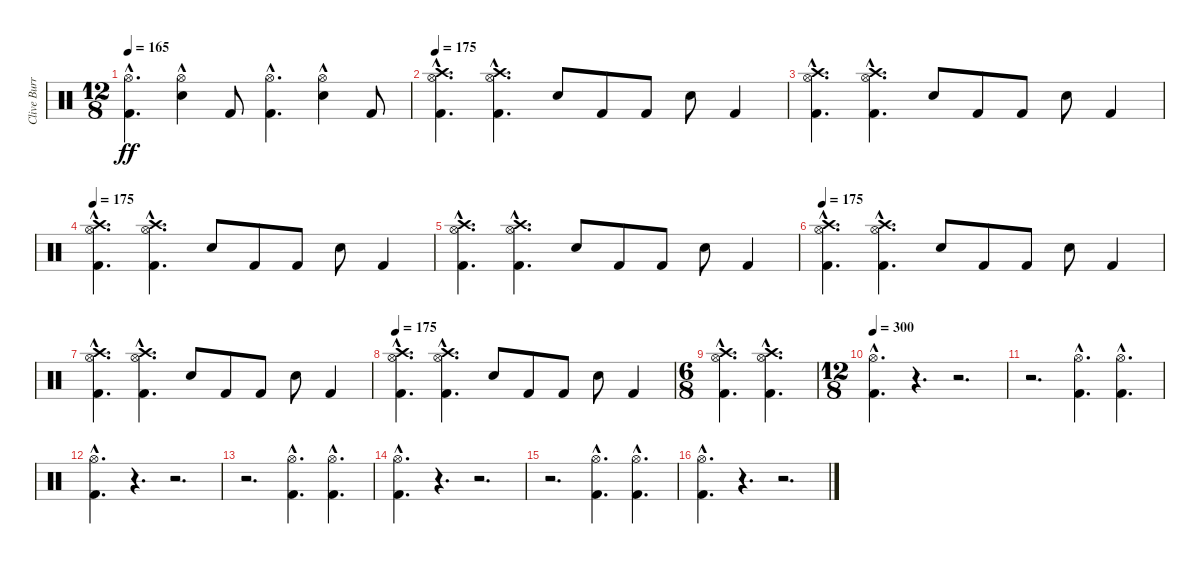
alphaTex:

\track ("Clive Burr" "Clive Burr") {instrument percussion}
\staff {score}
\articulation defaults
\ts (12 8)
\tempo 165
\clef neutral
\ks c
("Kick (hit) 2"{hac} "Hi-Hat (open)"{hac}).4{d dy ff} ("Snare (hit) 2"{hac} "Hi-Hat (open)").4 "Kick (hit) 2".8 ("Kick (hit) 2"{hac} "Hi-Hat (open)"{hac}).4{d} ("Snare (hit) 2"{hac} "Hi-Hat (open)").4 "Kick (hit) 2".8 |
\tempo 175
("Kick (hit) 2"{hac} "Hi-Hat (open)"{hac} "Crash high (hit)"{hac}).4{d} ("Kick (hit) 2"{hac} "Hi-Hat (open)"{hac} "Crash high (hit)"{hac}).4{d} "Snare (hit) 2".8 "Kick (hit) 2".8 "Kick (hit) 2".8 "Snare (hit) 2".8 "Kick (hit) 2".4 |
("Kick (hit) 2"{hac} "Hi-Hat (open)"{hac} "Crash high (hit)"{hac}).4{d} ("Kick (hit) 2"{hac} "Hi-Hat (open)"{hac} "Crash high (hit)"{hac}).4{d} "Snare (hit) 2".8 "Kick (hit) 2".8 "Kick (hit) 2".8 "Snare (hit) 2".8 "Kick (hit) 2".4 |
\tempo 175
("Kick (hit) 2"{hac} "Hi-Hat (open)"{hac} "Crash high (hit)"{hac}).4{d} ("Kick (hit) 2"{hac} "Hi-Hat (open)"{hac} "Crash high (hit)"{hac}).4{d} "Snare (hit) 2".8 "Kick (hit) 2".8 "Kick (hit) 2".8 "Snare (hit) 2".8 "Kick (hit) 2".4 |
("Kick (hit) 2"{hac} "Hi-Hat (open)"{hac} "Crash high (hit)"{hac}).4{d} ("Kick (hit) 2"{hac} "Hi-Hat (open)"{hac} "Crash high (hit)"{hac}).4{d} "Snare (hit) 2".8 "Kick (hit) 2".8 "Kick (hit) 2".8 "Snare (hit) 2".8 "Kick (hit) 2".4 |
\tempo 175
("Kick (hit) 2"{hac} "Hi-Hat (open)"{hac} "Crash high (hit)"{hac}).4{d} ("Kick (hit) 2"{hac} "Hi-Hat (open)"{hac} "Crash high (hit)"{hac}).4{d} "Snare (hit) 2".8 "Kick (hit) 2".8 "Kick (hit) 2".8 "Snare (hit) 2".8 "Kick (hit) 2".4 |
("Kick (hit) 2"{hac} "Hi-Hat (open)"{hac} "Crash high (hit)"{hac}).4{d} ("Kick (hit) 2"{hac} "Hi-Hat (open)"{hac} "Crash high (hit)"{hac}).4{d} "Snare (hit) 2".8 "Kick (hit) 2".8 "Kick (hit) 2".8 "Snare (hit) 2".8 "Kick (hit) 2".4 |
\tempo 175
("Kick (hit) 2"{hac} "Hi-Hat (open)"{hac} "Crash high (hit)"{hac}).4{d} ("Kick (hit) 2"{hac} "Hi-Hat (open)"{hac} "Crash high (hit)"{hac}).4{d} "Snare (hit) 2".8 "Kick (hit) 2".8 "Kick (hit) 2".8 "Snare (hit) 2".8 "Kick (hit) 2".4 |
\ts (6 8)
("Kick (hit) 2"{hac} "Hi-Hat (open)"{hac} "Crash high (hit)"{hac}).4{d} ("Kick (hit) 2"{hac} "Hi-Hat (open)"{hac} "Crash high (hit)"{hac}).4{d} |
\ts (12 8)
\tempo 300
("Kick (hit) 2"{hac} "Hi-Hat (open)"{hac}).4{d} r.4{d} r.2{d} |
r.2{d} ("Kick (hit) 2"{hac} "Hi-Hat (open)"{hac}).4{d} ("Kick (hit) 2"{hac} "Hi-Hat (open)"{hac}).4{d} |
("Kick (hit) 2"{hac} "Hi-Hat (open)"{hac}).4{d} r.4{d} r.2{d} |
r.2{d} ("Kick (hit) 2"{hac} "Hi-Hat (open)"{hac}).4{d} ("Kick (hit) 2"{hac} "Hi-Hat (open)"{hac}).4{d} |
("Kick (hit) 2"{hac} "Hi-Hat (open)"{hac}).4{d} r.4{d} r.2{d} |
r.2{d} ("Kick (hit) 2"{hac} "Hi-Hat (open)"{hac}).4{d} ("Kick (hit) 2"{hac} "Hi-Hat (open)"{hac}).4{d} |
("Kick (hit) 2"{hac} "Hi-Hat (open)"{hac}).4{d} r.4{d} r.2{d}
